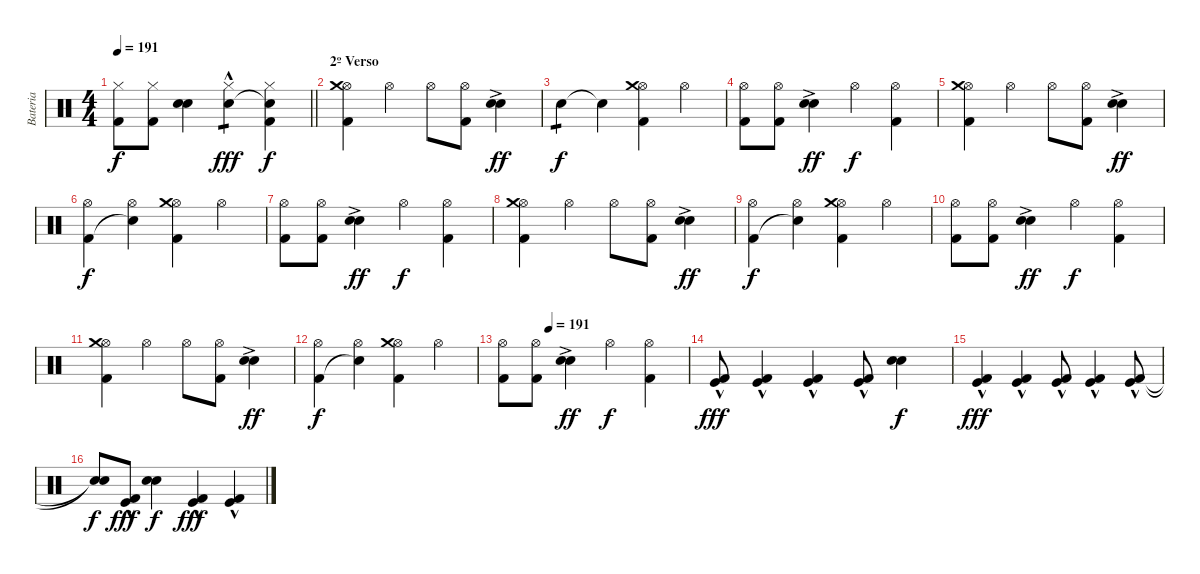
\track ("Bateria" "Bateria") {instrument percussion}
\staff {score}
\articulation defaults
\ts (4 4)
\tempo 191
\clef neutral
\barLineRight lightlight
\ks c
("Hi-Hat (closed)" "Kick (hit) 2").8{dy f} ("Hi-Hat (closed)" "Kick (hit) 2").8 ("Electric Snare (hit)" "Electric Snare (hit)").4 ("Hi-Hat (closed)" "Electric Snare (hit)"{hac}).4{tp 1 dy fff} ("Hi-Hat (closed)" "Snare (hit)"{t} "Kick (hit) 2").4{dy f} |
\section ("" "2º Verso")
("Hi-Hat (open)" "Crash medium (hit)" "Kick (hit) 2").4 "Hi-Hat (open)".4 "Hi-Hat (open)".8 ("Hi-Hat (open)" "Kick (hit) 2").8 ("Electric Snare (hit)"{ac} "Electric Snare (hit)"{ac}).4{dy ff} |
"Electric Snare (hit)".4{tp 1 dy f} "Snare (hit)"{t}.4 ("Hi-Hat (open)" "Crash medium (hit)" "Kick (hit) 2").4 "Hi-Hat (open)".4 |
("Hi-Hat (open)" "Kick (hit) 2").8 ("Hi-Hat (open)" "Kick (hit) 2").8 ("Electric Snare (hit)"{ac} "Electric Snare (hit)"{ac}).4{dy ff} "Hi-Hat (open)".4{dy f} ("Hi-Hat (open)" "Kick (hit) 2").4 |
("Hi-Hat (open)" "Crash medium (hit)" "Kick (hit) 2").4 "Hi-Hat (open)".4 "Hi-Hat (open)".8 ("Hi-Hat (open)" "Kick (hit) 2").8 ("Electric Snare (hit)"{ac} "Electric Snare (hit)"{ac}).4{dy ff} |
("Hi-Hat (open)" "Kick (hit) 2").4{dy f} ("Hi-Hat (open)" "Snare (hit)"{t}).4 ("Hi-Hat (open)" "Crash medium (hit)" "Kick (hit) 2").4 "Hi-Hat (open)".4 |
("Hi-Hat (open)" "Kick (hit) 2").8 ("Hi-Hat (open)" "Kick (hit) 2").8 ("Electric Snare (hit)"{ac} "Electric Snare (hit)"{ac}).4{dy ff} "Hi-Hat (open)".4{dy f} ("Hi-Hat (open)" "Kick (hit) 2").4 |
("Hi-Hat (open)" "Crash medium (hit)" "Kick (hit) 2").4 "Hi-Hat (open)".4 "Hi-Hat (open)".8 ("Hi-Hat (open)" "Kick (hit) 2").8 ("Electric Snare (hit)"{ac} "Electric Snare (hit)"{ac}).4{dy ff} |
("Hi-Hat (open)" "Kick (hit) 2").4{dy f} ("Hi-Hat (open)" "Snare (hit)"{t}).4 ("Hi-Hat (open)" "Crash medium (hit)" "Kick (hit) 2").4 "Hi-Hat (open)".4 |
("Hi-Hat (open)" "Kick (hit) 2").8 ("Hi-Hat (open)" "Kick (hit) 2").8 ("Electric Snare (hit)"{ac} "Electric Snare (hit)"{ac}).4{dy ff} "Hi-Hat (open)".4{dy f} ("Hi-Hat (open)" "Kick (hit) 2").4 |
("Hi-Hat (open)" "Crash medium (hit)" "Kick (hit) 2").4 "Hi-Hat (open)".4 "Hi-Hat (open)".8 ("Hi-Hat (open)" "Kick (hit) 2").8 ("Electric Snare (hit)"{ac} "Electric Snare (hit)"{ac}).4{dy ff} |
("Hi-Hat (open)" "Kick (hit) 2").4{dy f} ("Hi-Hat (open)" "Snare (hit)"{t}).4 ("Hi-Hat (open)" "Crash medium (hit)" "Kick (hit) 2").4 "Hi-Hat (open)".4 |
\tempo (191 0.25)
("Hi-Hat (open)" "Kick (hit) 2").8 ("Hi-Hat (open)" "Kick (hit) 2").8 ("Electric Snare (hit)"{ac} "Electric Snare (hit)"{ac}).4{dy ff} "Hi-Hat (open)".4{dy f} ("Hi-Hat (open)" "Kick (hit) 2").4 |
("Kick (hit)" "Kick (hit) 2"{hac}).8{dy fff} ("Kick (hit)" "Kick (hit) 2"{hac}).4 ("Kick (hit)" "Kick (hit) 2"{hac}).4 ("Kick (hit)" "Kick (hit) 2"{hac}).8 ("Electric Snare (hit)" "Electric Snare (hit)").4{dy f} |
("Kick (hit)" "Kick (hit) 2"{hac}).4{dy fff} ("Kick (hit)" "Kick (hit) 2"{hac}).4 ("Kick (hit)" "Kick (hit) 2"{hac}).8 ("Kick (hit)" "Kick (hit) 2"{hac}).4 ("Kick (hit)" "Kick (hit) 2"{hac}).8 |
("Snare (hit)"{t} "Snare (hit)"{t}).8{dy f} ("Kick (hit)" "Kick (hit) 2"{hac}).8{dy fff} ("Electric Snare (hit)" "Electric Snare (hit)").4{dy f} ("Kick (hit)" "Kick (hit) 2"{hac}).4{dy fff} ("Kick (hit)" "Kick (hit) 2"{hac}).4
